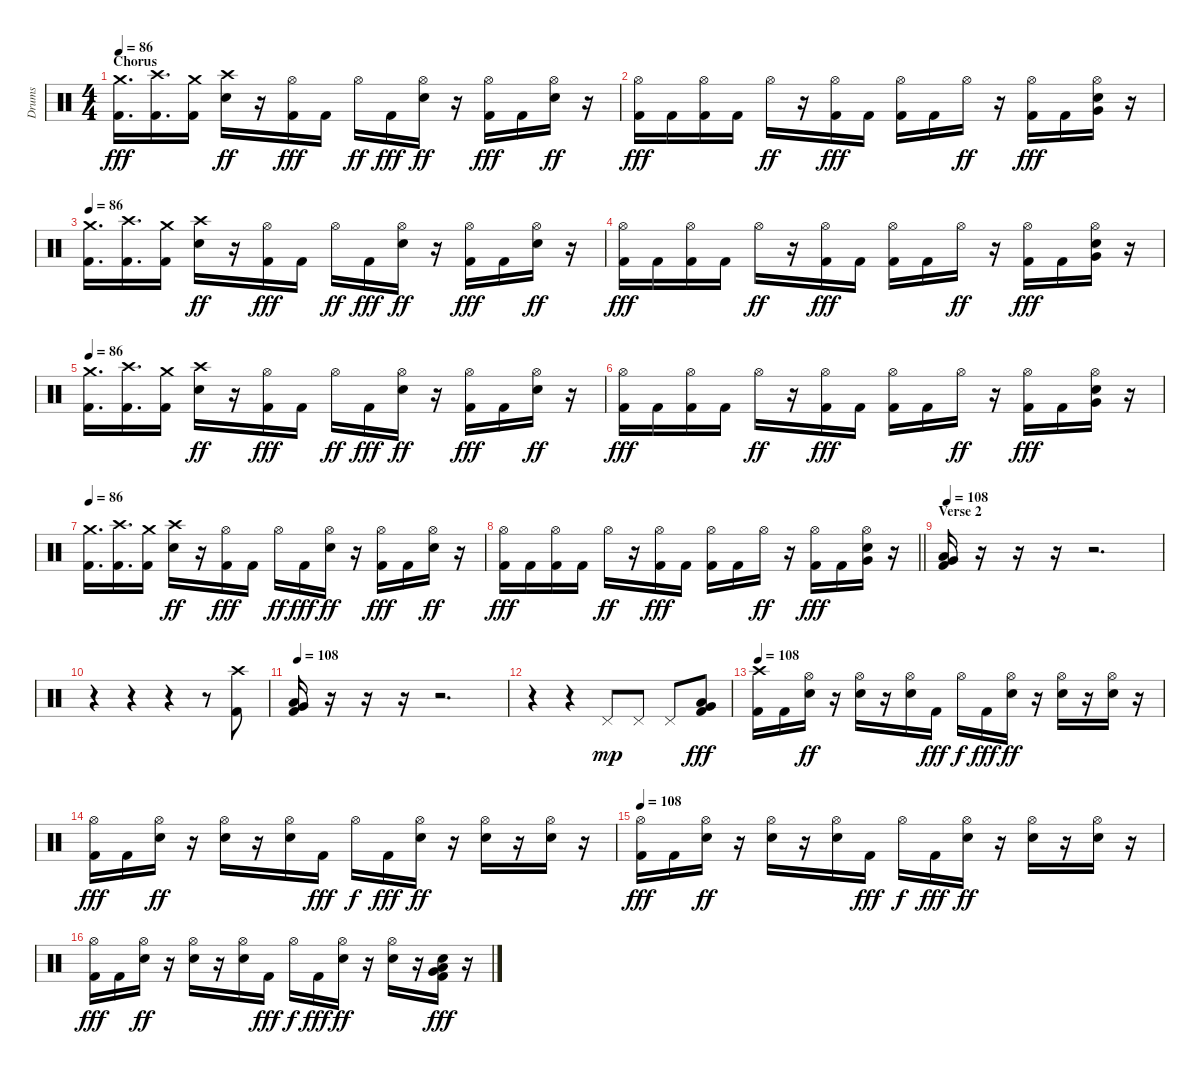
\track ("Drums" "Drums") {instrument percussion}
\staff {score}
\articulation defaults
\ts (4 4)
\section ("" "Chorus")
\tempo 86
\clef neutral
\ks c
("Crash medium (hit)" "Kick (hit) 2").16{d dy fff} ("Crash high (hit)" "Kick (hit) 2").16{d} ("Crash medium (hit)" "Kick (hit) 2").16 ("Crash high (hit)" "Electric Snare (hit)").16{dy ff} r.16 ("Hi-Hat (open)" "Kick (hit) 2").16{dy fff} "Kick (hit) 2".16 "Hi-Hat (open)".16{dy ff} "Kick (hit) 2".16{dy fff} ("Hi-Hat (open)" "Electric Snare (hit)").16{dy ff} r.16 ("Hi-Hat (open)" "Kick (hit) 2").16{dy fff} "Kick (hit) 2".16 ("Hi-Hat (open)" "Electric Snare (hit)").16{dy ff} r.16 |
("Hi-Hat (open)" "Kick (hit) 2").16{dy fff} "Kick (hit) 2".16 ("Hi-Hat (open)" "Kick (hit) 2").16 "Kick (hit) 2".16 "Hi-Hat (open)".16{dy ff} r.16 ("Hi-Hat (open)" "Kick (hit) 2").16{dy fff} "Kick (hit) 2".16 ("Hi-Hat (open)" "Kick (hit) 2").16 "Kick (hit) 2".16 "Hi-Hat (open)".16{dy ff} r.16 ("Hi-Hat (open)" "Kick (hit) 2").16{dy fff} "Kick (hit) 2".16 ("Hi-Hat (open)" "Electric Snare (hit)" "Very Low Tom (hit)").16 r.16 |
\tempo 86
("Crash medium (hit)" "Kick (hit) 2").16{d} ("Crash high (hit)" "Kick (hit) 2").16{d} ("Crash medium (hit)" "Kick (hit) 2").16 ("Crash high (hit)" "Electric Snare (hit)").16{dy ff} r.16 ("Hi-Hat (open)" "Kick (hit) 2").16{dy fff} "Kick (hit) 2".16 "Hi-Hat (open)".16{dy ff} "Kick (hit) 2".16{dy fff} ("Hi-Hat (open)" "Electric Snare (hit)").16{dy ff} r.16 ("Hi-Hat (open)" "Kick (hit) 2").16{dy fff} "Kick (hit) 2".16 ("Hi-Hat (open)" "Electric Snare (hit)").16{dy ff} r.16 |
("Hi-Hat (open)" "Kick (hit) 2").16{dy fff} "Kick (hit) 2".16 ("Hi-Hat (open)" "Kick (hit) 2").16 "Kick (hit) 2".16 "Hi-Hat (open)".16{dy ff} r.16 ("Hi-Hat (open)" "Kick (hit) 2").16{dy fff} "Kick (hit) 2".16 ("Hi-Hat (open)" "Kick (hit) 2").16 "Kick (hit) 2".16 "Hi-Hat (open)".16{dy ff} r.16 ("Hi-Hat (open)" "Kick (hit) 2").16{dy fff} "Kick (hit) 2".16 ("Hi-Hat (open)" "Electric Snare (hit)" "Very Low Tom (hit)").16 r.16 |
\tempo 86
("Crash medium (hit)" "Kick (hit) 2").16{d} ("Crash high (hit)" "Kick (hit) 2").16{d} ("Crash medium (hit)" "Kick (hit) 2").16 ("Crash high (hit)" "Electric Snare (hit)").16{dy ff} r.16 ("Hi-Hat (open)" "Kick (hit) 2").16{dy fff} "Kick (hit) 2".16 "Hi-Hat (open)".16{dy ff} "Kick (hit) 2".16{dy fff} ("Hi-Hat (open)" "Electric Snare (hit)").16{dy ff} r.16 ("Hi-Hat (open)" "Kick (hit) 2").16{dy fff} "Kick (hit) 2".16 ("Hi-Hat (open)" "Electric Snare (hit)").16{dy ff} r.16 |
("Hi-Hat (open)" "Kick (hit) 2").16{dy fff} "Kick (hit) 2".16 ("Hi-Hat (open)" "Kick (hit) 2").16 "Kick (hit) 2".16 "Hi-Hat (open)".16{dy ff} r.16 ("Hi-Hat (open)" "Kick (hit) 2").16{dy fff} "Kick (hit) 2".16 ("Hi-Hat (open)" "Kick (hit) 2").16 "Kick (hit) 2".16 "Hi-Hat (open)".16{dy ff} r.16 ("Hi-Hat (open)" "Kick (hit) 2").16{dy fff} "Kick (hit) 2".16 ("Hi-Hat (open)" "Electric Snare (hit)" "Very Low Tom (hit)").16 r.16 |
\tempo 86
("Crash medium (hit)" "Kick (hit) 2").16{d} ("Crash high (hit)" "Kick (hit) 2").16{d} ("Crash medium (hit)" "Kick (hit) 2").16 ("Crash high (hit)" "Electric Snare (hit)").16{dy ff} r.16 ("Hi-Hat (open)" "Kick (hit) 2").16{dy fff} "Kick (hit) 2".16 "Hi-Hat (open)".16{dy ff} "Kick (hit) 2".16{dy fff} ("Hi-Hat (open)" "Electric Snare (hit)").16{dy ff} r.16 ("Hi-Hat (open)" "Kick (hit) 2").16{dy fff} "Kick (hit) 2".16 ("Hi-Hat (open)" "Electric Snare (hit)").16{dy ff} r.16 |
\barLineRight lightlight
("Hi-Hat (open)" "Kick (hit) 2").16{dy fff} "Kick (hit) 2".16 ("Hi-Hat (open)" "Kick (hit) 2").16 "Kick (hit) 2".16 "Hi-Hat (open)".16{dy ff} r.16 ("Hi-Hat (open)" "Kick (hit) 2").16{dy fff} "Kick (hit) 2".16 ("Hi-Hat (open)" "Kick (hit) 2").16 "Kick (hit) 2".16 "Hi-Hat (open)".16{dy ff} r.16 ("Hi-Hat (open)" "Kick (hit) 2").16{dy fff} "Kick (hit) 2".16 ("Hi-Hat (open)" "Electric Snare (hit)" "Very Low Tom (hit)").16 r.16 |
\section ("" "Verse 2")
\tempo 108
("Low Tom (hit)" "Very Low Tom (hit)" "Kick (hit) 2").16 r.16 r.16 r.16 r.2{d} |
r.4 r.4 r.4 r.8 ("Crash high (hit)" "Kick (hit) 2").8 |
\tempo 108
("Low Tom (hit)" "Very Low Tom (hit)" "Kick (hit) 2").16 r.16 r.16 r.16 r.2{d} |
r.4 r.4 "Pedal Hi-Hat (hit)".8{dy mp} "Pedal Hi-Hat (hit)".8 "Pedal Hi-Hat (hit)".8 ("Low Tom (hit)" "Very Low Tom (hit)" "Kick (hit) 2").8{dy fff} |
\tempo 108
("Crash high (hit)" "Kick (hit) 2").16 "Kick (hit) 2".16 ("Hi-Hat (open)" "Electric Snare (hit)").16{dy ff} r.16 ("Hi-Hat (open)" "Electric Snare (hit)").16 r.16 ("Hi-Hat (open)" "Electric Snare (hit)").16 "Kick (hit) 2".16{dy fff} "Hi-Hat (open)".16{dy f} "Kick (hit) 2".16{dy fff} ("Hi-Hat (open)" "Electric Snare (hit)").16{dy ff} r.16 ("Hi-Hat (open)" "Electric Snare (hit)").16 r.16 ("Hi-Hat (open)" "Electric Snare (hit)").16 r.16 |
("Hi-Hat (open)" "Kick (hit) 2").16{dy fff} "Kick (hit) 2".16 ("Hi-Hat (open)" "Electric Snare (hit)").16{dy ff} r.16 ("Hi-Hat (open)" "Electric Snare (hit)").16 r.16 ("Hi-Hat (open)" "Electric Snare (hit)").16 "Kick (hit) 2".16{dy fff} "Hi-Hat (open)".16{dy f} "Kick (hit) 2".16{dy fff} ("Hi-Hat (open)" "Electric Snare (hit)").16{dy ff} r.16 ("Hi-Hat (open)" "Electric Snare (hit)").16 r.16 ("Hi-Hat (open)" "Electric Snare (hit)").16 r.16 |
\tempo 108
("Hi-Hat (open)" "Kick (hit) 2").16{dy fff} "Kick (hit) 2".16 ("Hi-Hat (open)" "Electric Snare (hit)").16{dy ff} r.16 ("Hi-Hat (open)" "Electric Snare (hit)").16 r.16 ("Hi-Hat (open)" "Electric Snare (hit)").16 "Kick (hit) 2".16{dy fff} "Hi-Hat (open)".16{dy f} "Kick (hit) 2".16{dy fff} ("Hi-Hat (open)" "Electric Snare (hit)").16{dy ff} r.16 ("Hi-Hat (open)" "Electric Snare (hit)").16 r.16 ("Hi-Hat (open)" "Electric Snare (hit)").16 r.16 |
("Hi-Hat (open)" "Kick (hit) 2").16{dy fff} "Kick (hit) 2".16 ("Hi-Hat (open)" "Electric Snare (hit)").16{dy ff} r.16 ("Hi-Hat (open)" "Electric Snare (hit)").16 r.16 ("Hi-Hat (open)" "Electric Snare (hit)").16 "Kick (hit) 2".16{dy fff} "Hi-Hat (open)".16{dy f} "Kick (hit) 2".16{dy fff} ("Hi-Hat (open)" "Electric Snare (hit)").16{dy ff} r.16 ("Hi-Hat (open)" "Electric Snare (hit)").16 r.16 ("Electric Snare (hit)" "Low Tom (hit)" "Very Low Tom (hit)" "Kick (hit) 2").16{dy fff} r.16
